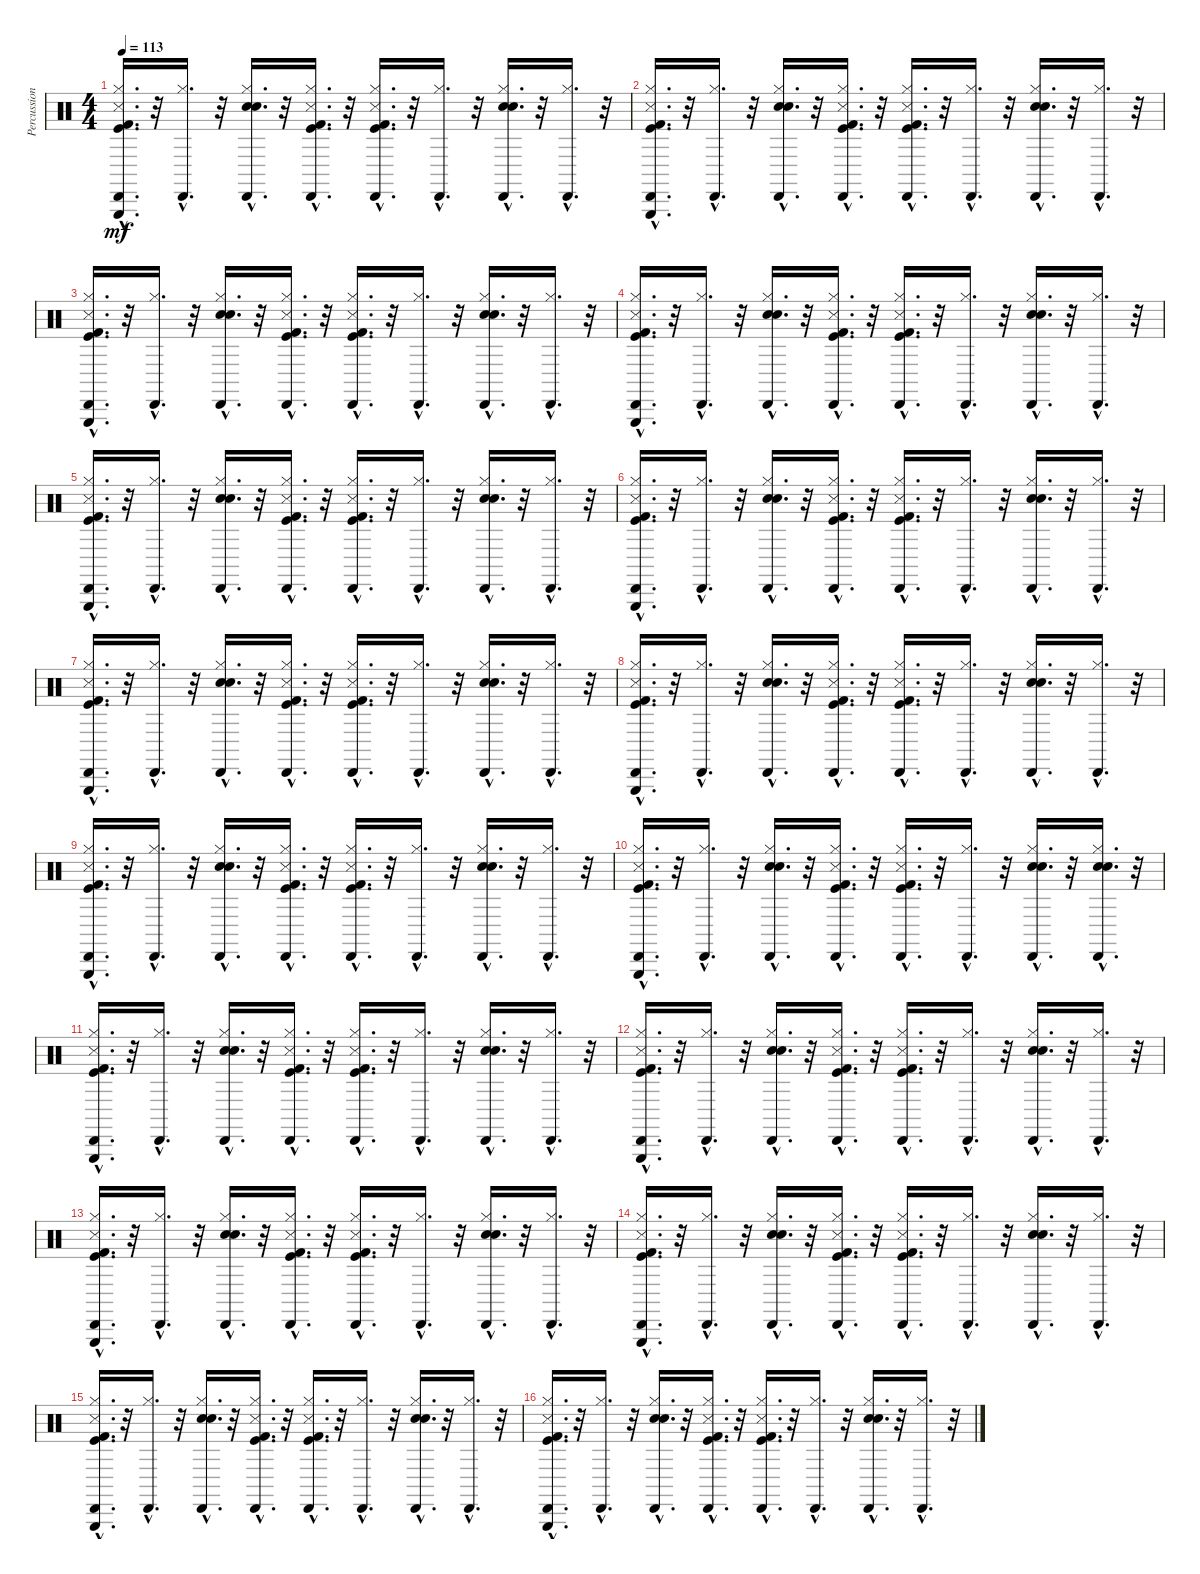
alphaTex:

\track ("Percussion" "Percussion") {instrument percussion}
\staff {score}
\articulation defaults
\ts (4 4)
\tempo 113
\clef neutral
\ks c
("Kick (hit) 2"{hac} "Cabasa (hit)"{hac} "Triangle (hit)"{hac} "Metronome (hit)"{hac} "Kick (hit)"{hac} "Hi-Hat (closed)"{hac}).16{d dy mf} r.32 ("Cabasa (hit)"{hac} "Hi-Hat (closed)"{hac}).16{d} r.32 ("Hand Clap (hit)"{hac} "Cabasa (hit)"{hac} "Electric Snare (hit)"{hac} "Hi-Hat (closed)"{hac}).16{d} r.32 ("Kick (hit) 2"{hac} "Cabasa (hit)"{hac} "Kick (hit)"{hac} "Metronome (hit)"{hac} "Hi-Hat (closed)"{hac}).16{d} r.32 ("Kick (hit) 2"{hac} "Cabasa (hit)"{hac} "Metronome (hit)"{hac} "Kick (hit)"{hac} "Hi-Hat (closed)"{hac}).16{d} r.32 ("Cabasa (hit)"{hac} "Hi-Hat (closed)"{hac}).16{d} r.32 ("Cabasa (hit)"{hac} "Hand Clap (hit)"{hac} "Electric Snare (hit)"{hac} "Hi-Hat (closed)"{hac}).16{d} r.32 ("Cabasa (hit)"{hac} "Hi-Hat (closed)"{hac}).16{d} r.32 |
("Hi-Hat (closed)"{hac} "Kick (hit)"{hac} "Metronome (hit)"{hac} "Triangle (hit)"{hac} "Cabasa (hit)"{hac} "Kick (hit) 2"{hac}).16{d} r.32 ("Hi-Hat (closed)"{hac} "Cabasa (hit)"{hac}).16{d} r.32 ("Hi-Hat (closed)"{hac} "Electric Snare (hit)"{hac} "Cabasa (hit)"{hac} "Hand Clap (hit)"{hac}).16{d} r.32 ("Hi-Hat (closed)"{hac} "Metronome (hit)"{hac} "Kick (hit)"{hac} "Cabasa (hit)"{hac} "Kick (hit) 2"{hac}).16{d} r.32 ("Hi-Hat (closed)"{hac} "Kick (hit)"{hac} "Metronome (hit)"{hac} "Cabasa (hit)"{hac} "Kick (hit) 2"{hac}).16{d} r.32 ("Hi-Hat (closed)"{hac} "Cabasa (hit)"{hac}).16{d} r.32 ("Hi-Hat (closed)"{hac} "Electric Snare (hit)"{hac} "Hand Clap (hit)"{hac} "Cabasa (hit)"{hac}).16{d} r.32 ("Hi-Hat (closed)"{hac} "Cabasa (hit)"{hac}).16{d} r.32 |
("Hi-Hat (closed)"{hac} "Kick (hit)"{hac} "Metronome (hit)"{hac} "Triangle (hit)"{hac} "Cabasa (hit)"{hac} "Kick (hit) 2"{hac}).16{d} r.32 ("Hi-Hat (closed)"{hac} "Cabasa (hit)"{hac}).16{d} r.32 ("Hi-Hat (closed)"{hac} "Electric Snare (hit)"{hac} "Cabasa (hit)"{hac} "Hand Clap (hit)"{hac}).16{d} r.32 ("Hi-Hat (closed)"{hac} "Metronome (hit)"{hac} "Kick (hit)"{hac} "Cabasa (hit)"{hac} "Kick (hit) 2"{hac}).16{d} r.32 ("Hi-Hat (closed)"{hac} "Kick (hit)"{hac} "Metronome (hit)"{hac} "Cabasa (hit)"{hac} "Kick (hit) 2"{hac}).16{d} r.32 ("Hi-Hat (closed)"{hac} "Cabasa (hit)"{hac}).16{d} r.32 ("Hi-Hat (closed)"{hac} "Electric Snare (hit)"{hac} "Hand Clap (hit)"{hac} "Cabasa (hit)"{hac}).16{d} r.32 ("Hi-Hat (closed)"{hac} "Cabasa (hit)"{hac}).16{d} r.32 |
("Hi-Hat (closed)"{hac} "Kick (hit)"{hac} "Metronome (hit)"{hac} "Triangle (hit)"{hac} "Cabasa (hit)"{hac} "Kick (hit) 2"{hac}).16{d} r.32 ("Hi-Hat (closed)"{hac} "Cabasa (hit)"{hac}).16{d} r.32 ("Hi-Hat (closed)"{hac} "Electric Snare (hit)"{hac} "Cabasa (hit)"{hac} "Hand Clap (hit)"{hac}).16{d} r.32 ("Hi-Hat (closed)"{hac} "Metronome (hit)"{hac} "Kick (hit)"{hac} "Cabasa (hit)"{hac} "Kick (hit) 2"{hac}).16{d} r.32 ("Hi-Hat (closed)"{hac} "Kick (hit)"{hac} "Metronome (hit)"{hac} "Cabasa (hit)"{hac} "Kick (hit) 2"{hac}).16{d} r.32 ("Hi-Hat (closed)"{hac} "Cabasa (hit)"{hac}).16{d} r.32 ("Hi-Hat (closed)"{hac} "Electric Snare (hit)"{hac} "Hand Clap (hit)"{hac} "Cabasa (hit)"{hac}).16{d} r.32 ("Hi-Hat (closed)"{hac} "Cabasa (hit)"{hac}).16{d} r.32 |
("Hi-Hat (closed)"{hac} "Kick (hit)"{hac} "Metronome (hit)"{hac} "Triangle (hit)"{hac} "Cabasa (hit)"{hac} "Kick (hit) 2"{hac}).16{d} r.32 ("Hi-Hat (closed)"{hac} "Cabasa (hit)"{hac}).16{d} r.32 ("Hi-Hat (closed)"{hac} "Electric Snare (hit)"{hac} "Cabasa (hit)"{hac} "Hand Clap (hit)"{hac}).16{d} r.32 ("Hi-Hat (closed)"{hac} "Metronome (hit)"{hac} "Kick (hit)"{hac} "Cabasa (hit)"{hac} "Kick (hit) 2"{hac}).16{d} r.32 ("Hi-Hat (closed)"{hac} "Kick (hit)"{hac} "Metronome (hit)"{hac} "Cabasa (hit)"{hac} "Kick (hit) 2"{hac}).16{d} r.32 ("Hi-Hat (closed)"{hac} "Cabasa (hit)"{hac}).16{d} r.32 ("Hi-Hat (closed)"{hac} "Electric Snare (hit)"{hac} "Hand Clap (hit)"{hac} "Cabasa (hit)"{hac}).16{d} r.32 ("Hi-Hat (closed)"{hac} "Cabasa (hit)"{hac}).16{d} r.32 |
("Hi-Hat (closed)"{hac} "Kick (hit)"{hac} "Metronome (hit)"{hac} "Triangle (hit)"{hac} "Cabasa (hit)"{hac} "Kick (hit) 2"{hac}).16{d} r.32 ("Hi-Hat (closed)"{hac} "Cabasa (hit)"{hac}).16{d} r.32 ("Hi-Hat (closed)"{hac} "Electric Snare (hit)"{hac} "Cabasa (hit)"{hac} "Hand Clap (hit)"{hac}).16{d} r.32 ("Hi-Hat (closed)"{hac} "Metronome (hit)"{hac} "Kick (hit)"{hac} "Cabasa (hit)"{hac} "Kick (hit) 2"{hac}).16{d} r.32 ("Hi-Hat (closed)"{hac} "Kick (hit)"{hac} "Metronome (hit)"{hac} "Cabasa (hit)"{hac} "Kick (hit) 2"{hac}).16{d} r.32 ("Hi-Hat (closed)"{hac} "Cabasa (hit)"{hac}).16{d} r.32 ("Hi-Hat (closed)"{hac} "Electric Snare (hit)"{hac} "Hand Clap (hit)"{hac} "Cabasa (hit)"{hac}).16{d} r.32 ("Hi-Hat (closed)"{hac} "Cabasa (hit)"{hac}).16{d} r.32 |
("Hi-Hat (closed)"{hac} "Kick (hit)"{hac} "Metronome (hit)"{hac} "Triangle (hit)"{hac} "Cabasa (hit)"{hac} "Kick (hit) 2"{hac}).16{d} r.32 ("Hi-Hat (closed)"{hac} "Cabasa (hit)"{hac}).16{d} r.32 ("Hi-Hat (closed)"{hac} "Electric Snare (hit)"{hac} "Cabasa (hit)"{hac} "Hand Clap (hit)"{hac}).16{d} r.32 ("Hi-Hat (closed)"{hac} "Metronome (hit)"{hac} "Kick (hit)"{hac} "Cabasa (hit)"{hac} "Kick (hit) 2"{hac}).16{d} r.32 ("Kick (hit)"{hac} "Cabasa (hit)"{hac} "Kick (hit) 2"{hac} "Hi-Hat (closed)"{hac} "Metronome (hit)"{hac}).16{d} r.32 ("Hi-Hat (closed)"{hac} "Cabasa (hit)"{hac}).16{d} r.32 ("Hi-Hat (closed)"{hac} "Electric Snare (hit)"{hac} "Hand Clap (hit)"{hac} "Cabasa (hit)"{hac}).16{d} r.32 ("Hi-Hat (closed)"{hac} "Cabasa (hit)"{hac}).16{d} r.32 |
("Hi-Hat (closed)"{hac} "Kick (hit)"{hac} "Metronome (hit)"{hac} "Triangle (hit)"{hac} "Cabasa (hit)"{hac} "Kick (hit) 2"{hac}).16{d} r.32 ("Hi-Hat (closed)"{hac} "Cabasa (hit)"{hac}).16{d} r.32 ("Hi-Hat (closed)"{hac} "Electric Snare (hit)"{hac} "Cabasa (hit)"{hac} "Hand Clap (hit)"{hac}).16{d} r.32 ("Hi-Hat (closed)"{hac} "Metronome (hit)"{hac} "Kick (hit)"{hac} "Cabasa (hit)"{hac} "Kick (hit) 2"{hac}).16{d} r.32 ("Hi-Hat (closed)"{hac} "Kick (hit)"{hac} "Metronome (hit)"{hac} "Cabasa (hit)"{hac} "Kick (hit) 2"{hac}).16{d} r.32 ("Hi-Hat (closed)"{hac} "Cabasa (hit)"{hac}).16{d} r.32 ("Hi-Hat (closed)"{hac} "Electric Snare (hit)"{hac} "Hand Clap (hit)"{hac} "Cabasa (hit)"{hac}).16{d} r.32 ("Hi-Hat (closed)"{hac} "Cabasa (hit)"{hac}).16{d} r.32 |
("Hi-Hat (closed)"{hac} "Kick (hit)"{hac} "Metronome (hit)"{hac} "Triangle (hit)"{hac} "Cabasa (hit)"{hac} "Kick (hit) 2"{hac}).16{d} r.32 ("Hi-Hat (closed)"{hac} "Cabasa (hit)"{hac}).16{d} r.32 ("Hi-Hat (closed)"{hac} "Electric Snare (hit)"{hac} "Cabasa (hit)"{hac} "Hand Clap (hit)"{hac}).16{d} r.32 ("Hi-Hat (closed)"{hac} "Metronome (hit)"{hac} "Kick (hit)"{hac} "Cabasa (hit)"{hac} "Kick (hit) 2"{hac}).16{d} r.32 ("Hi-Hat (closed)"{hac} "Kick (hit)"{hac} "Metronome (hit)"{hac} "Cabasa (hit)"{hac} "Kick (hit) 2"{hac}).16{d} r.32 ("Hi-Hat (closed)"{hac} "Cabasa (hit)"{hac}).16{d} r.32 ("Hi-Hat (closed)"{hac} "Electric Snare (hit)"{hac} "Hand Clap (hit)"{hac} "Cabasa (hit)"{hac}).16{d} r.32 ("Hi-Hat (closed)"{hac} "Cabasa (hit)"{hac}).16{d} r.32 |
("Hi-Hat (closed)"{hac} "Kick (hit)"{hac} "Metronome (hit)"{hac} "Triangle (hit)"{hac} "Cabasa (hit)"{hac} "Kick (hit) 2"{hac}).16{d} r.32 ("Hi-Hat (closed)"{hac} "Cabasa (hit)"{hac}).16{d} r.32 ("Hi-Hat (closed)"{hac} "Electric Snare (hit)"{hac} "Cabasa (hit)"{hac} "Hand Clap (hit)"{hac}).16{d} r.32 ("Hi-Hat (closed)"{hac} "Metronome (hit)"{hac} "Kick (hit)"{hac} "Cabasa (hit)"{hac} "Kick (hit) 2"{hac}).16{d} r.32 ("Hi-Hat (closed)"{hac} "Kick (hit)"{hac} "Metronome (hit)"{hac} "Cabasa (hit)"{hac} "Kick (hit) 2"{hac}).16{d} r.32 ("Hi-Hat (closed)"{hac} "Cabasa (hit)"{hac}).16{d} r.32 ("Hi-Hat (closed)"{hac} "Electric Snare (hit)"{hac} "Hand Clap (hit)"{hac} "Cabasa (hit)"{hac}).16{d} r.32 ("Hand Clap (hit)"{hac} "Electric Snare (hit)"{hac} "Hi-Hat (closed)"{hac} "Cabasa (hit)"{hac}).16{d} r.32 |
("Hi-Hat (closed)"{hac} "Kick (hit)"{hac} "Metronome (hit)"{hac} "Triangle (hit)"{hac} "Cabasa (hit)"{hac} "Kick (hit) 2"{hac}).16{d} r.32 ("Hi-Hat (closed)"{hac} "Cabasa (hit)"{hac}).16{d} r.32 ("Hi-Hat (closed)"{hac} "Electric Snare (hit)"{hac} "Cabasa (hit)"{hac} "Hand Clap (hit)"{hac}).16{d} r.32 ("Hi-Hat (closed)"{hac} "Metronome (hit)"{hac} "Kick (hit)"{hac} "Cabasa (hit)"{hac} "Kick (hit) 2"{hac}).16{d} r.32 ("Hi-Hat (closed)"{hac} "Kick (hit)"{hac} "Metronome (hit)"{hac} "Cabasa (hit)"{hac} "Kick (hit) 2"{hac}).16{d} r.32 ("Hi-Hat (closed)"{hac} "Cabasa (hit)"{hac}).16{d} r.32 ("Hi-Hat (closed)"{hac} "Electric Snare (hit)"{hac} "Hand Clap (hit)"{hac} "Cabasa (hit)"{hac}).16{d} r.32 ("Hi-Hat (closed)"{hac} "Cabasa (hit)"{hac}).16{d} r.32 |
("Hi-Hat (closed)"{hac} "Kick (hit)"{hac} "Metronome (hit)"{hac} "Triangle (hit)"{hac} "Cabasa (hit)"{hac} "Kick (hit) 2"{hac}).16{d} r.32 ("Hi-Hat (closed)"{hac} "Cabasa (hit)"{hac}).16{d} r.32 ("Hi-Hat (closed)"{hac} "Electric Snare (hit)"{hac} "Cabasa (hit)"{hac} "Hand Clap (hit)"{hac}).16{d} r.32 ("Hi-Hat (closed)"{hac} "Metronome (hit)"{hac} "Kick (hit)"{hac} "Cabasa (hit)"{hac} "Kick (hit) 2"{hac}).16{d} r.32 ("Hi-Hat (closed)"{hac} "Kick (hit)"{hac} "Metronome (hit)"{hac} "Cabasa (hit)"{hac} "Kick (hit) 2"{hac}).16{d} r.32 ("Hi-Hat (closed)"{hac} "Cabasa (hit)"{hac}).16{d} r.32 ("Hi-Hat (closed)"{hac} "Electric Snare (hit)"{hac} "Hand Clap (hit)"{hac} "Cabasa (hit)"{hac}).16{d} r.32 ("Hi-Hat (closed)"{hac} "Cabasa (hit)"{hac}).16{d} r.32 |
("Hi-Hat (closed)"{hac} "Kick (hit)"{hac} "Metronome (hit)"{hac} "Triangle (hit)"{hac} "Cabasa (hit)"{hac} "Kick (hit) 2"{hac}).16{d} r.32 ("Hi-Hat (closed)"{hac} "Cabasa (hit)"{hac}).16{d} r.32 ("Hi-Hat (closed)"{hac} "Electric Snare (hit)"{hac} "Cabasa (hit)"{hac} "Hand Clap (hit)"{hac}).16{d} r.32 ("Hi-Hat (closed)"{hac} "Metronome (hit)"{hac} "Kick (hit)"{hac} "Cabasa (hit)"{hac} "Kick (hit) 2"{hac}).16{d} r.32 ("Hi-Hat (closed)"{hac} "Kick (hit)"{hac} "Metronome (hit)"{hac} "Cabasa (hit)"{hac} "Kick (hit) 2"{hac}).16{d} r.32 ("Hi-Hat (closed)"{hac} "Cabasa (hit)"{hac}).16{d} r.32 ("Hi-Hat (closed)"{hac} "Electric Snare (hit)"{hac} "Hand Clap (hit)"{hac} "Cabasa (hit)"{hac}).16{d} r.32 ("Hi-Hat (closed)"{hac} "Cabasa (hit)"{hac}).16{d} r.32 |
("Hi-Hat (closed)"{hac} "Kick (hit)"{hac} "Metronome (hit)"{hac} "Triangle (hit)"{hac} "Cabasa (hit)"{hac} "Kick (hit) 2"{hac}).16{d} r.32 ("Hi-Hat (closed)"{hac} "Cabasa (hit)"{hac}).16{d} r.32 ("Hi-Hat (closed)"{hac} "Electric Snare (hit)"{hac} "Cabasa (hit)"{hac} "Hand Clap (hit)"{hac}).16{d} r.32 ("Hi-Hat (closed)"{hac} "Metronome (hit)"{hac} "Kick (hit)"{hac} "Cabasa (hit)"{hac} "Kick (hit) 2"{hac}).16{d} r.32 ("Hi-Hat (closed)"{hac} "Kick (hit)"{hac} "Metronome (hit)"{hac} "Cabasa (hit)"{hac} "Kick (hit) 2"{hac}).16{d} r.32 ("Hi-Hat (closed)"{hac} "Cabasa (hit)"{hac}).16{d} r.32 ("Hi-Hat (closed)"{hac} "Electric Snare (hit)"{hac} "Hand Clap (hit)"{hac} "Cabasa (hit)"{hac}).16{d} r.32 ("Hi-Hat (closed)"{hac} "Cabasa (hit)"{hac}).16{d} r.32 |
("Hi-Hat (closed)"{hac} "Kick (hit)"{hac} "Metronome (hit)"{hac} "Triangle (hit)"{hac} "Cabasa (hit)"{hac} "Kick (hit) 2"{hac}).16{d} r.32 ("Hi-Hat (closed)"{hac} "Cabasa (hit)"{hac}).16{d} r.32 ("Hi-Hat (closed)"{hac} "Electric Snare (hit)"{hac} "Cabasa (hit)"{hac} "Hand Clap (hit)"{hac}).16{d} r.32 ("Hi-Hat (closed)"{hac} "Metronome (hit)"{hac} "Kick (hit)"{hac} "Cabasa (hit)"{hac} "Kick (hit) 2"{hac}).16{d} r.32 ("Hi-Hat (closed)"{hac} "Kick (hit)"{hac} "Metronome (hit)"{hac} "Cabasa (hit)"{hac} "Kick (hit) 2"{hac}).16{d} r.32 ("Hi-Hat (closed)"{hac} "Cabasa (hit)"{hac}).16{d} r.32 ("Hi-Hat (closed)"{hac} "Electric Snare (hit)"{hac} "Hand Clap (hit)"{hac} "Cabasa (hit)"{hac}).16{d} r.32 ("Hi-Hat (closed)"{hac} "Cabasa (hit)"{hac}).16{d} r.32 |
("Hi-Hat (closed)"{hac} "Kick (hit)"{hac} "Metronome (hit)"{hac} "Triangle (hit)"{hac} "Cabasa (hit)"{hac} "Kick (hit) 2"{hac}).16{d} r.32 ("Hi-Hat (closed)"{hac} "Cabasa (hit)"{hac}).16{d} r.32 ("Hi-Hat (closed)"{hac} "Electric Snare (hit)"{hac} "Cabasa (hit)"{hac} "Hand Clap (hit)"{hac}).16{d} r.32 ("Hi-Hat (closed)"{hac} "Kick (hit)"{hac} "Cabasa (hit)"{hac} "Kick (hit) 2"{hac} "Metronome (hit)"{hac}).16{d} r.32 ("Hi-Hat (closed)"{hac} "Kick (hit)"{hac} "Metronome (hit)"{hac} "Cabasa (hit)"{hac} "Kick (hit) 2"{hac}).16{d} r.32 ("Cabasa (hit)"{hac} "Hi-Hat (closed)"{hac}).16{d} r.32 ("Hi-Hat (closed)"{hac} "Electric Snare (hit)"{hac} "Hand Clap (hit)"{hac} "Cabasa (hit)"{hac}).16{d} r.32 ("Hi-Hat (closed)"{hac} "Cabasa (hit)"{hac}).16{d} r.32
